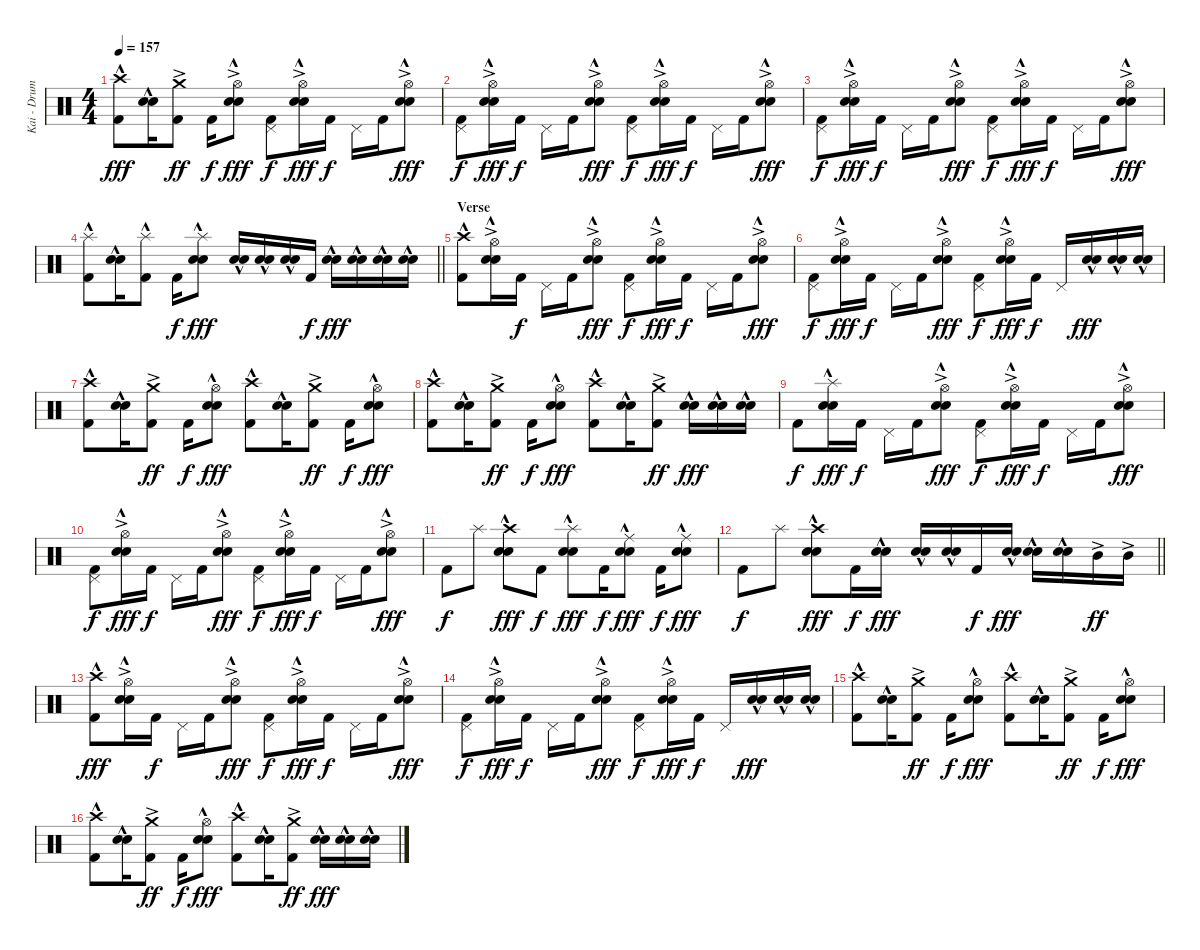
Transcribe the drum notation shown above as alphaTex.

\track ("Kai - Drums" "Kai - Drum") {instrument percussion}
\staff {score}
\articulation defaults
\ts (4 4)
\tempo 157
\clef neutral
\ks c
("Crash high (hit)"{hac} "Kick (hit) 2").8{dy fff} ("Electric Snare (hit)"{hac} "Snare (hit) 2").16 ("Crash medium (hit)"{ac} "Kick (hit) 2").8{dy ff} "Kick (hit) 2".16{dy f} ("Hi-Hat (open)"{ac} "Electric Snare (hit)"{hac} "Snare (hit) 2").8{dy fff} ("Pedal Hi-Hat (hit)" "Kick (hit) 2").8{dy f} ("Hi-Hat (open)"{ac} "Electric Snare (hit)"{hac} "Snare (hit) 2").16{dy fff} "Kick (hit) 2".16{dy f} "Pedal Hi-Hat (hit)".16 "Kick (hit) 2".16 ("Hi-Hat (open)"{ac} "Electric Snare (hit)"{hac} "Snare (hit) 2").8{dy fff} |
("Pedal Hi-Hat (hit)" "Kick (hit) 2").8{dy f} ("Hi-Hat (open)"{ac} "Electric Snare (hit)"{hac} "Snare (hit) 2").16{dy fff} "Kick (hit) 2".16{dy f} "Pedal Hi-Hat (hit)".16 "Kick (hit) 2".16 ("Hi-Hat (open)"{ac} "Electric Snare (hit)"{hac} "Snare (hit) 2").8{dy fff} ("Pedal Hi-Hat (hit)" "Kick (hit) 2").8{dy f} ("Hi-Hat (open)"{ac} "Electric Snare (hit)"{hac} "Snare (hit) 2").16{dy fff} "Kick (hit) 2".16{dy f} "Pedal Hi-Hat (hit)".16 "Kick (hit) 2".16 ("Hi-Hat (open)"{ac} "Electric Snare (hit)"{hac} "Snare (hit) 2").8{dy fff} |
("Pedal Hi-Hat (hit)" "Kick (hit) 2").8{dy f} ("Hi-Hat (open)"{ac} "Electric Snare (hit)"{hac} "Snare (hit) 2").16{dy fff} "Kick (hit) 2".16{dy f} "Pedal Hi-Hat (hit)".16 "Kick (hit) 2".16 ("Hi-Hat (open)"{ac} "Electric Snare (hit)"{hac} "Snare (hit) 2").8{dy fff} ("Pedal Hi-Hat (hit)" "Kick (hit) 2").8{dy f} ("Hi-Hat (open)"{ac} "Electric Snare (hit)"{hac} "Snare (hit) 2").16{dy fff} "Kick (hit) 2".16{dy f} "Pedal Hi-Hat (hit)".16 "Kick (hit) 2".16 ("Hi-Hat (open)"{ac} "Electric Snare (hit)"{hac} "Snare (hit) 2").8{dy fff} |
\barLineRight lightlight
("Splash (hit)"{hac} "Kick (hit) 2").8 ("Electric Snare (hit)"{hac} "Snare (hit) 2").16 ("Splash (hit)"{hac} "Kick (hit) 2").8 "Kick (hit) 2".16{dy f} ("Splash (hit)"{hac} "Electric Snare (hit)"{hac} "Snare (hit) 2").8{dy fff} ("Electric Snare (hit)"{hac} "Snare (hit) 2").16 ("Electric Snare (hit)"{hac} "Snare (hit) 2").16 ("Electric Snare (hit)"{hac} "Snare (hit) 2").16 "Kick (hit) 2".16{dy f} ("Electric Snare (hit)"{hac} "Snare (hit) 2").16{dy fff} ("Electric Snare (hit)"{hac} "Snare (hit) 2").16 ("Electric Snare (hit)"{hac} "Snare (hit) 2").16 ("Electric Snare (hit)"{hac} "Snare (hit) 2").16 |
\section ("" "Verse")
("Crash high (hit)"{hac} "Kick (hit) 2").8 ("Hi-Hat (open)"{ac} "Electric Snare (hit)"{hac} "Snare (hit) 2").16 "Kick (hit) 2".16{dy f} "Pedal Hi-Hat (hit)".16 "Kick (hit) 2".16 ("Hi-Hat (open)"{ac} "Electric Snare (hit)"{hac} "Snare (hit) 2").8{dy fff} ("Pedal Hi-Hat (hit)" "Kick (hit) 2").8{dy f} ("Hi-Hat (open)"{ac} "Electric Snare (hit)"{hac} "Snare (hit) 2").16{dy fff} "Kick (hit) 2".16{dy f} "Pedal Hi-Hat (hit)".16 "Kick (hit) 2".16 ("Hi-Hat (open)"{ac} "Electric Snare (hit)"{hac} "Snare (hit) 2").8{dy fff} |
("Pedal Hi-Hat (hit)" "Kick (hit) 2").8{dy f} ("Hi-Hat (open)"{ac} "Electric Snare (hit)"{hac} "Snare (hit) 2").16{dy fff} "Kick (hit) 2".16{dy f} "Pedal Hi-Hat (hit)".16 "Kick (hit) 2".16 ("Hi-Hat (open)"{ac} "Electric Snare (hit)"{hac} "Snare (hit) 2").8{dy fff} ("Pedal Hi-Hat (hit)" "Kick (hit) 2").8{dy f} ("Hi-Hat (open)"{ac} "Electric Snare (hit)"{hac} "Snare (hit) 2").16{dy fff} "Kick (hit) 2".16{dy f} "Pedal Hi-Hat (hit)".16 ("Electric Snare (hit)"{hac} "Snare (hit) 2").16{dy fff} ("Electric Snare (hit)"{hac} "Snare (hit) 2").16 ("Electric Snare (hit)"{hac} "Snare (hit) 2").16 |
("Crash high (hit)"{hac} "Kick (hit) 2").8 ("Electric Snare (hit)"{hac} "Snare (hit) 2").16 ("Crash medium (hit)"{ac} "Kick (hit) 2").8{dy ff} "Kick (hit) 2".16{dy f} ("Hi-Hat (open)" "Electric Snare (hit)"{hac} "Snare (hit) 2").8{dy fff} ("Crash high (hit)"{hac} "Kick (hit) 2").8 ("Electric Snare (hit)"{hac} "Snare (hit) 2").16 ("Crash medium (hit)"{ac} "Kick (hit) 2").8{dy ff} "Kick (hit) 2".16{dy f} ("Hi-Hat (open)" "Electric Snare (hit)"{hac} "Snare (hit) 2").8{dy fff} |
("Crash high (hit)"{hac} "Kick (hit) 2").8 ("Electric Snare (hit)"{hac} "Snare (hit) 2").16 ("Crash medium (hit)"{ac} "Kick (hit) 2").8{dy ff} "Kick (hit) 2".16{dy f} ("Hi-Hat (open)" "Electric Snare (hit)"{hac} "Snare (hit) 2").8{dy fff} ("Crash high (hit)"{hac} "Kick (hit) 2").8 ("Electric Snare (hit)"{hac} "Snare (hit) 2").16 ("Crash medium (hit)"{ac} "Kick (hit) 2").8{dy ff} ("Electric Snare (hit)"{hac} "Snare (hit) 2").16{dy fff} ("Electric Snare (hit)"{hac} "Snare (hit) 2").16 ("Electric Snare (hit)"{hac} "Snare (hit) 2").16 |
"Kick (hit) 2".8{dy f} ("Splash (hit)"{hac} "Electric Snare (hit)"{hac} "Snare (hit) 2").16{dy fff} "Kick (hit) 2".16{dy f} "Pedal Hi-Hat (hit)".16 "Kick (hit) 2".16 ("Hi-Hat (open)"{ac} "Electric Snare (hit)"{hac} "Snare (hit) 2").8{dy fff} ("Pedal Hi-Hat (hit)" "Kick (hit) 2").8{dy f} ("Hi-Hat (open)"{ac} "Electric Snare (hit)"{hac} "Snare (hit) 2").16{dy fff} "Kick (hit) 2".16{dy f} "Pedal Hi-Hat (hit)".16 "Kick (hit) 2".16 ("Hi-Hat (open)"{ac} "Electric Snare (hit)"{hac} "Snare (hit) 2").8{dy fff} |
("Pedal Hi-Hat (hit)" "Kick (hit) 2").8{dy f} ("Hi-Hat (open)"{ac} "Electric Snare (hit)"{hac} "Snare (hit) 2").16{dy fff} "Kick (hit) 2".16{dy f} "Pedal Hi-Hat (hit)".16 "Kick (hit) 2".16 ("Hi-Hat (open)"{ac} "Electric Snare (hit)"{hac} "Snare (hit) 2").8{dy fff} ("Pedal Hi-Hat (hit)" "Kick (hit) 2").8{dy f} ("Hi-Hat (open)"{ac} "Electric Snare (hit)"{hac} "Snare (hit) 2").16{dy fff} "Kick (hit) 2".16{dy f} "Pedal Hi-Hat (hit)".16 "Kick (hit) 2".16 ("Hi-Hat (open)"{ac} "Electric Snare (hit)"{hac} "Snare (hit) 2").8{dy fff} |
"Kick (hit) 2".8{dy f} "Splash (hit)".8 ("Crash high (hit)"{hac} "Electric Snare (hit)"{hac} "Snare (hit) 2").8{dy fff} "Kick (hit) 2".8{dy f} ("Splash (hit)"{hac} "Electric Snare (hit)"{hac} "Snare (hit) 2").8{dy fff} "Kick (hit) 2".16{dy f} ("Ride (middle)"{hac} "Electric Snare (hit)"{hac} "Snare (hit) 2").8{dy fff} "Kick (hit) 2".16{dy f} ("Ride (middle)" "Electric Snare (hit)"{hac} "Snare (hit) 2").8{dy fff} |
\barLineRight lightlight "Kick (hit) 2".8{dy f} "Splash (hit)".8
("Crash high (hit)"{hac} "Electric Snare (hit)"{hac} "Snare (hit) 2").8{dy fff} "Kick (hit) 2".16{dy f} ("Electric Snare (hit)"{hac} "Snare (hit) 2").16{dy fff} ("Electric Snare (hit)"{hac} "Snare (hit) 2").16 ("Electric Snare (hit)"{hac} "Snare (hit) 2").16 "Kick (hit) 2".16{dy f} ("Electric Snare (hit)"{hac} "Snare (hit) 2").16{dy fff} ("Electric Snare (hit)"{hac} "Snare (hit) 2").16 ("Electric Snare (hit)"{hac} "Snare (hit) 2").16 "Mid Tom (hit)"{ac}.16{dy ff} "Mid Tom (hit)"{ac}.16 |
\section ("" "")
("Crash high (hit)"{hac} "Kick (hit) 2").8{dy fff} ("Hi-Hat (open)"{ac} "Electric Snare (hit)"{hac} "Snare (hit) 2").16 "Kick (hit) 2".16{dy f} "Pedal Hi-Hat (hit)".16 "Kick (hit) 2".16 ("Hi-Hat (open)"{ac} "Electric Snare (hit)"{hac} "Snare (hit) 2").8{dy fff} ("Pedal Hi-Hat (hit)" "Kick (hit) 2").8{dy f} ("Hi-Hat (open)"{ac} "Electric Snare (hit)"{hac} "Snare (hit) 2").16{dy fff} "Kick (hit) 2".16{dy f} "Pedal Hi-Hat (hit)".16 "Kick (hit) 2".16 ("Hi-Hat (open)"{ac} "Electric Snare (hit)"{hac} "Snare (hit) 2").8{dy fff} |
("Pedal Hi-Hat (hit)" "Kick (hit) 2").8{dy f} ("Hi-Hat (open)"{ac} "Electric Snare (hit)"{hac} "Snare (hit) 2").16{dy fff} "Kick (hit) 2".16{dy f} "Pedal Hi-Hat (hit)".16 "Kick (hit) 2".16 ("Hi-Hat (open)"{ac} "Electric Snare (hit)"{hac} "Snare (hit) 2").8{dy fff} ("Pedal Hi-Hat (hit)" "Kick (hit) 2").8{dy f} ("Hi-Hat (open)"{ac} "Electric Snare (hit)"{hac} "Snare (hit) 2").16{dy fff} "Kick (hit) 2".16{dy f} "Pedal Hi-Hat (hit)".16 ("Electric Snare (hit)"{hac} "Snare (hit) 2").16{dy fff} ("Electric Snare (hit)"{hac} "Snare (hit) 2").16 ("Electric Snare (hit)"{hac} "Snare (hit) 2").16 |
("Crash high (hit)"{hac} "Kick (hit) 2").8 ("Electric Snare (hit)"{hac} "Snare (hit) 2").16 ("Crash medium (hit)"{ac} "Kick (hit) 2").8{dy ff} "Kick (hit) 2".16{dy f} ("Hi-Hat (open)" "Electric Snare (hit)"{hac} "Snare (hit) 2").8{dy fff} ("Crash high (hit)"{hac} "Kick (hit) 2").8 ("Electric Snare (hit)"{hac} "Snare (hit) 2").16 ("Crash medium (hit)"{ac} "Kick (hit) 2").8{dy ff} "Kick (hit) 2".16{dy f} ("Hi-Hat (open)" "Electric Snare (hit)"{hac} "Snare (hit) 2").8{dy fff} |
("Crash high (hit)"{hac} "Kick (hit) 2").8 ("Electric Snare (hit)"{hac} "Snare (hit) 2").16 ("Crash medium (hit)"{ac} "Kick (hit) 2").8{dy ff} "Kick (hit) 2".16{dy f} ("Hi-Hat (open)" "Electric Snare (hit)"{hac} "Snare (hit) 2").8{dy fff} ("Crash high (hit)"{hac} "Kick (hit) 2").8 ("Electric Snare (hit)"{hac} "Snare (hit) 2").16 ("Crash medium (hit)"{ac} "Kick (hit) 2").8{dy ff} ("Electric Snare (hit)"{hac} "Snare (hit) 2").16{dy fff} ("Electric Snare (hit)"{hac} "Snare (hit) 2").16 ("Electric Snare (hit)"{hac} "Snare (hit) 2").16
